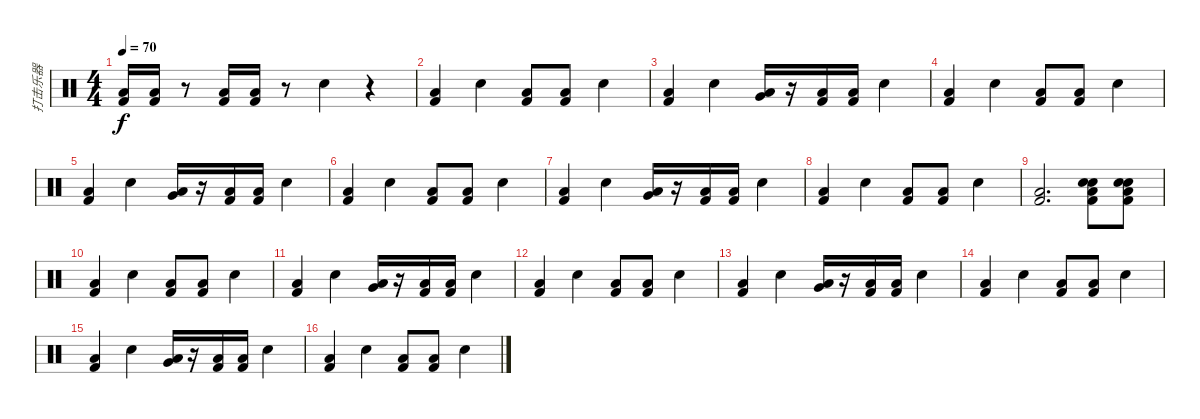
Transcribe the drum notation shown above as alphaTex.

\track ("打击乐器" "打击乐器") {instrument percussion bank 5}
\staff {score}
\articulation defaults
\ts (4 4)
\tempo 70
\clef neutral
\ks c
("Low Floor Tom (hit)" "Kick (hit) 2").16{dy f} ("Low Floor Tom (hit)" "Kick (hit) 2").16 r.8 ("Low Floor Tom (hit)" "Kick (hit) 2").16 ("Low Floor Tom (hit)" "Kick (hit) 2").16 r.8 "Electric Snare (hit)".4 r.4 |
("Low Floor Tom (hit)" "Kick (hit) 2").4 "Electric Snare (hit)".4 ("Low Floor Tom (hit)" "Kick (hit) 2").8 ("Low Floor Tom (hit)" "Kick (hit) 2").8 "Electric Snare (hit)".4 |
("Low Floor Tom (hit)" "Kick (hit) 2").4 "Electric Snare (hit)".4 ("Low Floor Tom (hit)" "Very Low Tom (hit)").16 r.16 ("Low Floor Tom (hit)" "Kick (hit) 2").16 ("Low Floor Tom (hit)" "Kick (hit) 2").16 "Electric Snare (hit)".4 |
("Low Floor Tom (hit)" "Kick (hit) 2").4 "Electric Snare (hit)".4 ("Low Floor Tom (hit)" "Kick (hit) 2").8 ("Low Floor Tom (hit)" "Kick (hit) 2").8 "Electric Snare (hit)".4 |
("Low Floor Tom (hit)" "Kick (hit) 2").4 "Electric Snare (hit)".4 ("Low Floor Tom (hit)" "Very Low Tom (hit)").16 r.16 ("Low Floor Tom (hit)" "Kick (hit) 2").16 ("Low Floor Tom (hit)" "Kick (hit) 2").16 "Electric Snare (hit)".4 |
("Low Floor Tom (hit)" "Kick (hit) 2").4 "Electric Snare (hit)".4 ("Low Floor Tom (hit)" "Kick (hit) 2").8 ("Low Floor Tom (hit)" "Kick (hit) 2").8 "Electric Snare (hit)".4 |
("Low Floor Tom (hit)" "Kick (hit) 2").4 "Electric Snare (hit)".4 ("Low Floor Tom (hit)" "Very Low Tom (hit)").16 r.16 ("Low Floor Tom (hit)" "Kick (hit) 2").16 ("Low Floor Tom (hit)" "Kick (hit) 2").16 "Electric Snare (hit)".4 |
("Low Floor Tom (hit)" "Kick (hit) 2").4 "Electric Snare (hit)".4 ("Low Floor Tom (hit)" "Kick (hit) 2").8 ("Low Floor Tom (hit)" "Kick (hit) 2").8 "Electric Snare (hit)".4 |
("Low Floor Tom (hit)" "Kick (hit) 2").2{d} ("Electric Snare (hit)" "Snare (hit) 2" "Low Floor Tom (hit)" "Kick (hit) 2").8 ("Electric Snare (hit)" "Snare (hit) 2" "Low Floor Tom (hit)" "Kick (hit) 2").8 |
("Low Floor Tom (hit)" "Kick (hit) 2").4 "Electric Snare (hit)".4 ("Low Floor Tom (hit)" "Kick (hit) 2").8 ("Low Floor Tom (hit)" "Kick (hit) 2").8 "Electric Snare (hit)".4 |
("Low Floor Tom (hit)" "Kick (hit) 2").4 "Electric Snare (hit)".4 ("Low Floor Tom (hit)" "Very Low Tom (hit)").16 r.16 ("Low Floor Tom (hit)" "Kick (hit) 2").16 ("Low Floor Tom (hit)" "Kick (hit) 2").16 "Electric Snare (hit)".4 |
("Low Floor Tom (hit)" "Kick (hit) 2").4 "Electric Snare (hit)".4 ("Low Floor Tom (hit)" "Kick (hit) 2").8 ("Low Floor Tom (hit)" "Kick (hit) 2").8 "Electric Snare (hit)".4 |
("Low Floor Tom (hit)" "Kick (hit) 2").4 "Electric Snare (hit)".4 ("Low Floor Tom (hit)" "Very Low Tom (hit)").16 r.16 ("Low Floor Tom (hit)" "Kick (hit) 2").16 ("Low Floor Tom (hit)" "Kick (hit) 2").16 "Electric Snare (hit)".4 |
("Low Floor Tom (hit)" "Kick (hit) 2").4 "Electric Snare (hit)".4 ("Low Floor Tom (hit)" "Kick (hit) 2").8 ("Low Floor Tom (hit)" "Kick (hit) 2").8 "Electric Snare (hit)".4 |
("Low Floor Tom (hit)" "Kick (hit) 2").4 "Electric Snare (hit)".4 ("Low Floor Tom (hit)" "Very Low Tom (hit)").16 r.16 ("Low Floor Tom (hit)" "Kick (hit) 2").16 ("Low Floor Tom (hit)" "Kick (hit) 2").16 "Electric Snare (hit)".4 |
("Low Floor Tom (hit)" "Kick (hit) 2").4 "Electric Snare (hit)".4 ("Low Floor Tom (hit)" "Kick (hit) 2").8 ("Low Floor Tom (hit)" "Kick (hit) 2").8 "Electric Snare (hit)".4
